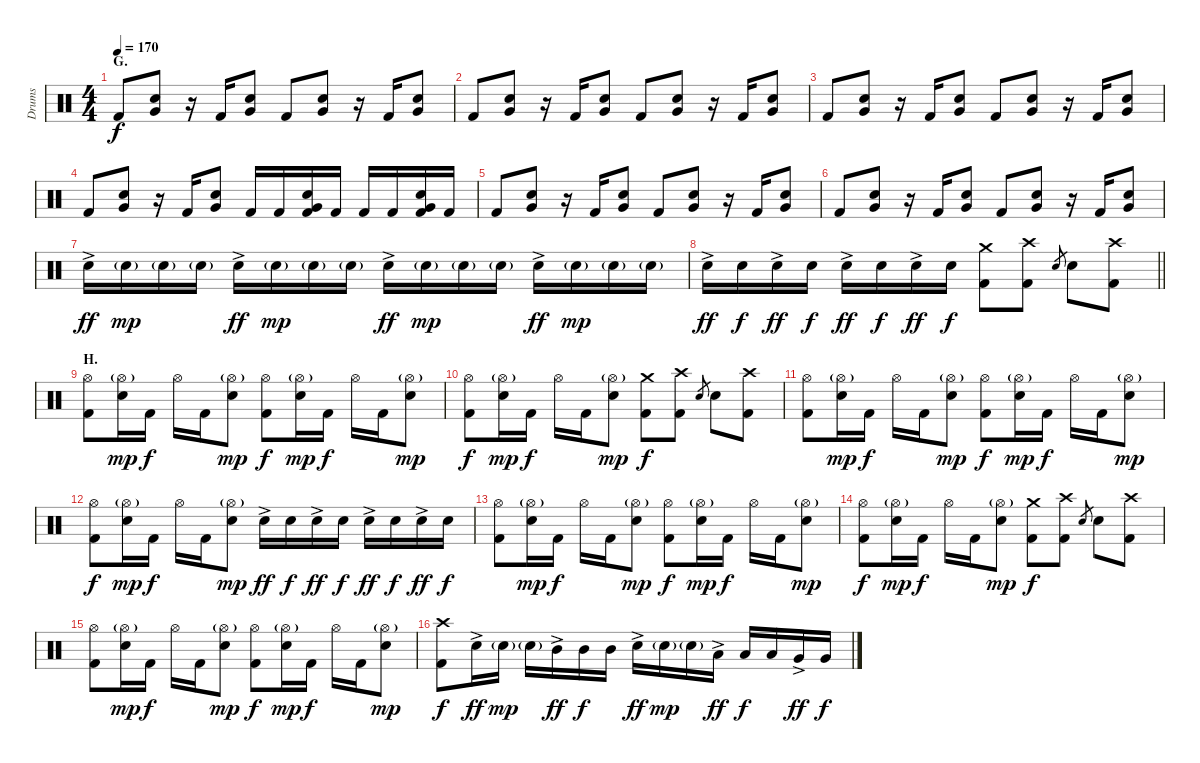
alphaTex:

\track ("Drums" "Drums") {instrument percussion}
\staff {score}
\articulation defaults
\ts (4 4)
\section ("" "G.")
\tempo 170
\clef neutral
\ks c "Kick (hit) 2".8{dy f}
("Electric Snare (hit)" "Very Low Tom (hit)").8{bu 120} r.16 "Kick (hit) 2".16 ("Electric Snare (hit)" "Very Low Tom (hit)").8{bu 120} "Kick (hit) 2".8 ("Electric Snare (hit)" "Very Low Tom (hit)").8{bu 120} r.16 "Kick (hit) 2".16 ("Electric Snare (hit)" "Very Low Tom (hit)").8{bu 120} |
"Kick (hit) 2".8 ("Electric Snare (hit)" "Very Low Tom (hit)").8{bu 120} r.16 "Kick (hit) 2".16 ("Electric Snare (hit)" "Very Low Tom (hit)").8{bu 120} "Kick (hit) 2".8 ("Electric Snare (hit)" "Very Low Tom (hit)").8{bu 120} r.16 "Kick (hit) 2".16 ("Electric Snare (hit)" "Very Low Tom (hit)").8{bu 120} |
"Kick (hit) 2".8 ("Electric Snare (hit)" "Very Low Tom (hit)").8{bu 120} r.16 "Kick (hit) 2".16 ("Electric Snare (hit)" "Very Low Tom (hit)").8{bu 120} "Kick (hit) 2".8 ("Electric Snare (hit)" "Very Low Tom (hit)").8{bu 120} r.16 "Kick (hit) 2".16 ("Electric Snare (hit)" "Very Low Tom (hit)").8{bu 120} |
"Kick (hit) 2".8 ("Electric Snare (hit)" "Very Low Tom (hit)").8{bu 120} r.16 "Kick (hit) 2".16 ("Electric Snare (hit)" "Very Low Tom (hit)").8{bu 120} "Kick (hit) 2".16 "Kick (hit) 2".16 ("Very Low Tom (hit)" "Electric Snare (hit)" "Kick (hit) 2").16 "Kick (hit) 2".16 "Kick (hit) 2".16 "Kick (hit) 2".16 ("Very Low Tom (hit)" "Electric Snare (hit)" "Kick (hit) 2").16 "Kick (hit) 2".16 |
"Kick (hit) 2".8 ("Electric Snare (hit)" "Very Low Tom (hit)").8{bu 120} r.16 "Kick (hit) 2".16 ("Electric Snare (hit)" "Very Low Tom (hit)").8{bu 120} "Kick (hit) 2".8 ("Electric Snare (hit)" "Very Low Tom (hit)").8{bu 120} r.16 "Kick (hit) 2".16 ("Electric Snare (hit)" "Very Low Tom (hit)").8{bu 120} |
"Kick (hit) 2".8 ("Electric Snare (hit)" "Very Low Tom (hit)").8{bu 120} r.16 "Kick (hit) 2".16 ("Electric Snare (hit)" "Very Low Tom (hit)").8{bu 120} "Kick (hit) 2".8 ("Electric Snare (hit)" "Very Low Tom (hit)").8{bu 120} r.16 "Kick (hit) 2".16 ("Electric Snare (hit)" "Very Low Tom (hit)").8{bu 120} |
"Electric Snare (hit)"{ac}.16{dy ff} "Electric Snare (hit)"{g}.16{dy mp} "Electric Snare (hit)"{g}.16 "Electric Snare (hit)"{g}.16 "Electric Snare (hit)"{ac}.16{dy ff} "Electric Snare (hit)"{g}.16{dy mp} "Electric Snare (hit)"{g}.16 "Electric Snare (hit)"{g}.16 "Electric Snare (hit)"{ac}.16{dy ff} "Electric Snare (hit)"{g}.16{dy mp} "Electric Snare (hit)"{g}.16 "Electric Snare (hit)"{g}.16 "Electric Snare (hit)"{ac}.16{dy ff} "Electric Snare (hit)"{g}.16{dy mp} "Electric Snare (hit)"{g}.16 "Electric Snare (hit)"{g}.16 |
\barLineRight lightlight "Electric Snare (hit)"{ac}.16{dy ff} "Electric Snare (hit)".16{dy f} "Electric Snare (hit)"{ac}.16{dy ff} "Electric Snare (hit)".16{dy f} "Electric Snare (hit)"{ac}.16{dy ff} "Electric Snare (hit)".16{dy f} "Electric Snare (hit)"{ac}.16{dy ff} "Electric Snare (hit)".16{dy f}
("Crash medium (hit)" "Kick (hit) 2").8 ("Crash high (hit)" "Kick (hit) 2").8 "Electric Snare (hit)".8{gr} "Electric Snare (hit)".8 ("Crash high (hit)" "Kick (hit) 2").8 |
\section ("" "H.")
("Hi-Hat (open)" "Kick (hit) 2").8 ("Hi-Hat (open)"{g} "Electric Snare (hit)").16{dy mp} "Kick (hit) 2".16{dy f} "Hi-Hat (open)".16 "Kick (hit) 2".16 ("Hi-Hat (open)"{g} "Electric Snare (hit)").8{dy mp} ("Hi-Hat (open)" "Kick (hit) 2").8{dy f} ("Hi-Hat (open)"{g} "Electric Snare (hit)").16{dy mp} "Kick (hit) 2".16{dy f} "Hi-Hat (open)".16 "Kick (hit) 2".16 ("Hi-Hat (open)"{g} "Electric Snare (hit)").8{dy mp} |
("Hi-Hat (open)" "Kick (hit) 2").8{dy f} ("Hi-Hat (open)"{g} "Electric Snare (hit)").16{dy mp} "Kick (hit) 2".16{dy f} "Hi-Hat (open)".16 "Kick (hit) 2".16 ("Hi-Hat (open)"{g} "Electric Snare (hit)").8{dy mp} ("Crash medium (hit)" "Kick (hit) 2").8{dy f} ("Crash high (hit)" "Kick (hit) 2").8 "Electric Snare (hit)".8{gr} "Electric Snare (hit)".8 ("Crash high (hit)" "Kick (hit) 2").8 |
("Hi-Hat (open)" "Kick (hit) 2").8 ("Hi-Hat (open)"{g} "Electric Snare (hit)").16{dy mp} "Kick (hit) 2".16{dy f} "Hi-Hat (open)".16 "Kick (hit) 2".16 ("Hi-Hat (open)"{g} "Electric Snare (hit)").8{dy mp} ("Hi-Hat (open)" "Kick (hit) 2").8{dy f} ("Hi-Hat (open)"{g} "Electric Snare (hit)").16{dy mp} "Kick (hit) 2".16{dy f} "Hi-Hat (open)".16 "Kick (hit) 2".16 ("Hi-Hat (open)"{g} "Electric Snare (hit)").8{dy mp} |
("Hi-Hat (open)" "Kick (hit) 2").8{dy f} ("Hi-Hat (open)"{g} "Electric Snare (hit)").16{dy mp} "Kick (hit) 2".16{dy f} "Hi-Hat (open)".16 "Kick (hit) 2".16 ("Hi-Hat (open)"{g} "Electric Snare (hit)").8{dy mp} "Electric Snare (hit)"{ac}.16{dy ff} "Electric Snare (hit)".16{dy f} "Electric Snare (hit)"{ac}.16{dy ff} "Electric Snare (hit)".16{dy f} "Electric Snare (hit)"{ac}.16{dy ff} "Electric Snare (hit)".16{dy f} "Electric Snare (hit)"{ac}.16{dy ff} "Electric Snare (hit)".16{dy f} |
("Hi-Hat (open)" "Kick (hit) 2").8 ("Hi-Hat (open)"{g} "Electric Snare (hit)").16{dy mp} "Kick (hit) 2".16{dy f} "Hi-Hat (open)".16 "Kick (hit) 2".16 ("Hi-Hat (open)"{g} "Electric Snare (hit)").8{dy mp} ("Hi-Hat (open)" "Kick (hit) 2").8{dy f} ("Hi-Hat (open)"{g} "Electric Snare (hit)").16{dy mp} "Kick (hit) 2".16{dy f} "Hi-Hat (open)".16 "Kick (hit) 2".16 ("Hi-Hat (open)"{g} "Electric Snare (hit)").8{dy mp} |
("Hi-Hat (open)" "Kick (hit) 2").8{dy f} ("Hi-Hat (open)"{g} "Electric Snare (hit)").16{dy mp} "Kick (hit) 2".16{dy f} "Hi-Hat (open)".16 "Kick (hit) 2".16 ("Hi-Hat (open)"{g} "Electric Snare (hit)").8{dy mp} ("Crash medium (hit)" "Kick (hit) 2").8{dy f} ("Crash high (hit)" "Kick (hit) 2").8 "Electric Snare (hit)".8{gr} "Electric Snare (hit)".8 ("Crash high (hit)" "Kick (hit) 2").8 |
("Hi-Hat (open)" "Kick (hit) 2").8 ("Hi-Hat (open)"{g} "Electric Snare (hit)").16{dy mp} "Kick (hit) 2".16{dy f} "Hi-Hat (open)".16 "Kick (hit) 2".16 ("Hi-Hat (open)"{g} "Electric Snare (hit)").8{dy mp} ("Hi-Hat (open)" "Kick (hit) 2").8{dy f} ("Hi-Hat (open)"{g} "Electric Snare (hit)").16{dy mp} "Kick (hit) 2".16{dy f} "Hi-Hat (open)".16 "Kick (hit) 2".16 ("Hi-Hat (open)"{g} "Electric Snare (hit)").8{dy mp} |
("Crash high (hit)" "Kick (hit) 2").8{dy f} "Electric Snare (hit)"{ac}.16{dy ff} "Electric Snare (hit)"{g}.16{dy mp} "Electric Snare (hit)"{g}.16 "Mid Tom (hit)"{ac}.16{dy ff} "Mid Tom (hit)".16{dy f} "Mid Tom (hit)".16 "Electric Snare (hit)"{ac}.16{dy ff} "Electric Snare (hit)"{g}.16{dy mp} "Electric Snare (hit)"{g}.16 "Low Tom (hit)"{ac}.16{dy ff} "Low Tom (hit)".16{dy f} "Low Tom (hit)".16 "Very Low Tom (hit)"{ac}.16{dy ff} "Very Low Tom (hit)".16{dy f}
